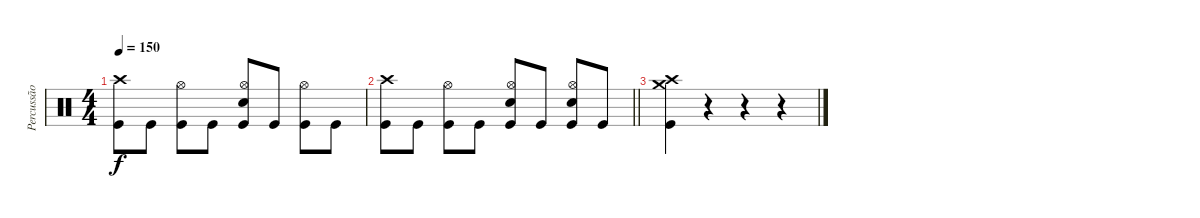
\track ("Percussão" "Percussão") {instrument percussion}
\staff {score}
\articulation defaults
\ts (4 4)
\tempo 150
\clef neutral
\ks c
("Crash high (hit)" "Kick (hit)").8{dy f} "Kick (hit)".8 ("Hi-Hat (open)" "Kick (hit)").8 "Kick (hit)".8 ("Hi-Hat (open)" "Snare (hit) 2" "Kick (hit)").8 "Kick (hit)".8 ("Hi-Hat (open)" "Kick (hit)").8 "Kick (hit)".8 |
\barLineRight lightlight
("Crash high (hit)" "Kick (hit)").8 "Kick (hit)".8 ("Hi-Hat (open)" "Kick (hit)").8 "Kick (hit)".8 ("Hi-Hat (open)" "Snare (hit) 2" "Kick (hit)").8 "Kick (hit)".8 ("Hi-Hat (open)" "Snare (hit) 2" "Kick (hit)").8 "Kick (hit)".8 |
("Crash high (hit)" "Crash medium (hit)" "Kick (hit)").4 r.4 r.4 r.4
